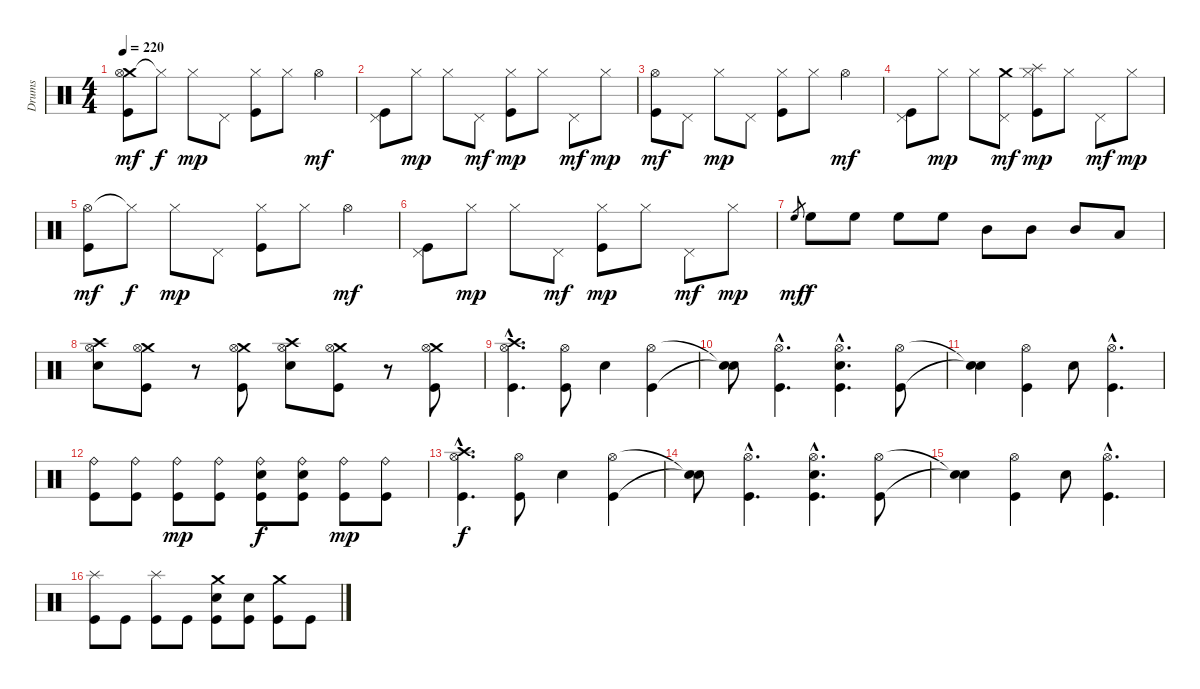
\track ("Drums" "Drums") {instrument percussion}
\staff {score}
\articulation defaults
\ts (4 4)
\tempo 220
\clef neutral
\ks c
("Crash medium (hit)" "Hi-Hat (open)" "Kick (hit)").8{dy mf} "Hi-Hat (closed)"{t}.8{dy f} "Hi-Hat (closed)".8{dy mp} "Pedal Hi-Hat (hit)".8 ("Hi-Hat (closed)" "Kick (hit)").8 "Hi-Hat (closed)".8 "Hi-Hat (open)".4{dy mf} |
("Pedal Hi-Hat (hit)" "Kick (hit)").8 "Hi-Hat (closed)".8{dy mp} "Hi-Hat (closed)".8 "Pedal Hi-Hat (hit)".8{dy mf} ("Hi-Hat (closed)" "Kick (hit)").8{dy mp} "Hi-Hat (closed)".8 "Pedal Hi-Hat (hit)".8{dy mf} "Hi-Hat (closed)".8{dy mp} |
("Hi-Hat (open)" "Kick (hit)").8{dy mf} "Pedal Hi-Hat (hit)".8 "Hi-Hat (closed)".8{dy mp} "Pedal Hi-Hat (hit)".8 ("Hi-Hat (closed)" "Kick (hit)").8 "Hi-Hat (closed)".8 "Hi-Hat (open)".4{dy mf} |
("Pedal Hi-Hat (hit)" "Kick (hit)").8 "Hi-Hat (closed)".8{dy mp} "Hi-Hat (closed)".8 ("Crash medium (hit)" "Pedal Hi-Hat (hit)").8{dy mf} ("Splash (hit)" "Hi-Hat (closed)" "Kick (hit)").8{dy mp} "Hi-Hat (closed)".8 "Pedal Hi-Hat (hit)".8{dy mf} "Hi-Hat (closed)".8{dy mp} |
("Hi-Hat (open)" "Kick (hit)").8{dy mf} "Hi-Hat (closed)"{t}.8{dy f} "Hi-Hat (closed)".8{dy mp} "Pedal Hi-Hat (hit)".8 ("Hi-Hat (closed)" "Kick (hit)").8 "Hi-Hat (closed)".8 "Hi-Hat (open)".4{dy mf} |
("Pedal Hi-Hat (hit)" "Kick (hit)").8 "Hi-Hat (closed)".8{dy mp} "Hi-Hat (closed)".8 "Pedal Hi-Hat (hit)".8{dy mf} ("Hi-Hat (closed)" "Kick (hit)").8{dy mp} "Hi-Hat (closed)".8 "Pedal Hi-Hat (hit)".8{dy mf} "Hi-Hat (closed)".8{dy mp} |
"High Floor Tom (hit)".8{gr dy mf} "High Floor Tom (hit)".8{dy f} "High Floor Tom (hit)".8 "High Floor Tom (hit)".8 "High Floor Tom (hit)".8 "Mid Tom (hit)".8 "Mid Tom (hit)".8 "Mid Tom (hit)".8 "Low Tom (hit)".8 |
("Crash high (hit)" "Hi-Hat (open)" "Electric Snare (hit)").8 ("Crash medium (hit)" "Hi-Hat (open)" "Kick (hit)").8 r.8 ("Crash medium (hit)" "Hi-Hat (open)" "Kick (hit)").8 ("Crash high (hit)" "Hi-Hat (open)" "Electric Snare (hit)").8 ("Crash medium (hit)" "Hi-Hat (open)" "Kick (hit)").8 r.8 ("Crash medium (hit)" "Hi-Hat (open)" "Kick (hit)").8 |
("Crash high (hit)"{hac} "Hi-Hat (open)"{hac} "Kick (hit)"{hac}).4{d} ("Hi-Hat (open)" "Kick (hit)").8 "Electric Snare (hit)".4 ("Hi-Hat (open)" "Kick (hit)").4 |
("Snare (hit)"{t} "Snare (hit)"{t}).8 ("Hi-Hat (open)"{hac} "Kick (hit)"{hac}).4{d} ("Hi-Hat (open)"{hac} "Electric Snare (hit)"{hac} "Kick (hit)"{hac}).4{d} ("Hi-Hat (open)" "Kick (hit)").8 |
("Snare (hit)"{t} "Snare (hit)"{t}).4 ("Hi-Hat (open)" "Kick (hit)").4 "Electric Snare (hit)".8 ("Hi-Hat (open)"{hac} "Kick (hit)"{hac}).4{d} |
("Ride (bell)" "Kick (hit)").8 ("Ride (bell)" "Kick (hit)").8 ("Ride (bell)" "Kick (hit)").8{dy mp} ("Ride (bell)" "Kick (hit)").8 ("Ride (bell)" "Electric Snare (hit)" "Kick (hit)").8{dy f} ("Ride (bell)" "Electric Snare (hit)" "Kick (hit)").8 ("Ride (bell)" "Kick (hit)").8{dy mp} ("Ride (bell)" "Kick (hit)").8 |
("Crash high (hit)"{hac} "Hi-Hat (open)"{hac} "Kick (hit)"{hac}).4{d dy f} ("Hi-Hat (open)" "Kick (hit)").8 "Electric Snare (hit)".4 ("Hi-Hat (open)" "Kick (hit)").4 |
("Snare (hit)"{t} "Snare (hit)"{t}).8 ("Hi-Hat (open)"{hac} "Kick (hit)"{hac}).4{d} ("Hi-Hat (open)"{hac} "Electric Snare (hit)"{hac} "Kick (hit)"{hac}).4{d} ("Hi-Hat (open)" "Kick (hit)").8 |
("Snare (hit)"{t} "Snare (hit)"{t}).4 ("Hi-Hat (open)" "Kick (hit)").4 "Electric Snare (hit)".8 ("Hi-Hat (open)"{hac} "Kick (hit)"{hac}).4{d} |
("Splash (hit)" "Kick (hit)").8 "Kick (hit)".8 ("Splash (hit)" "Kick (hit)").8 "Kick (hit)".8 ("Crash medium (hit)" "Electric Snare (hit)" "Kick (hit)").8 ("Electric Snare (hit)" "Kick (hit)").8 ("Crash medium (hit)" "Kick (hit)").8 "Kick (hit)".8
